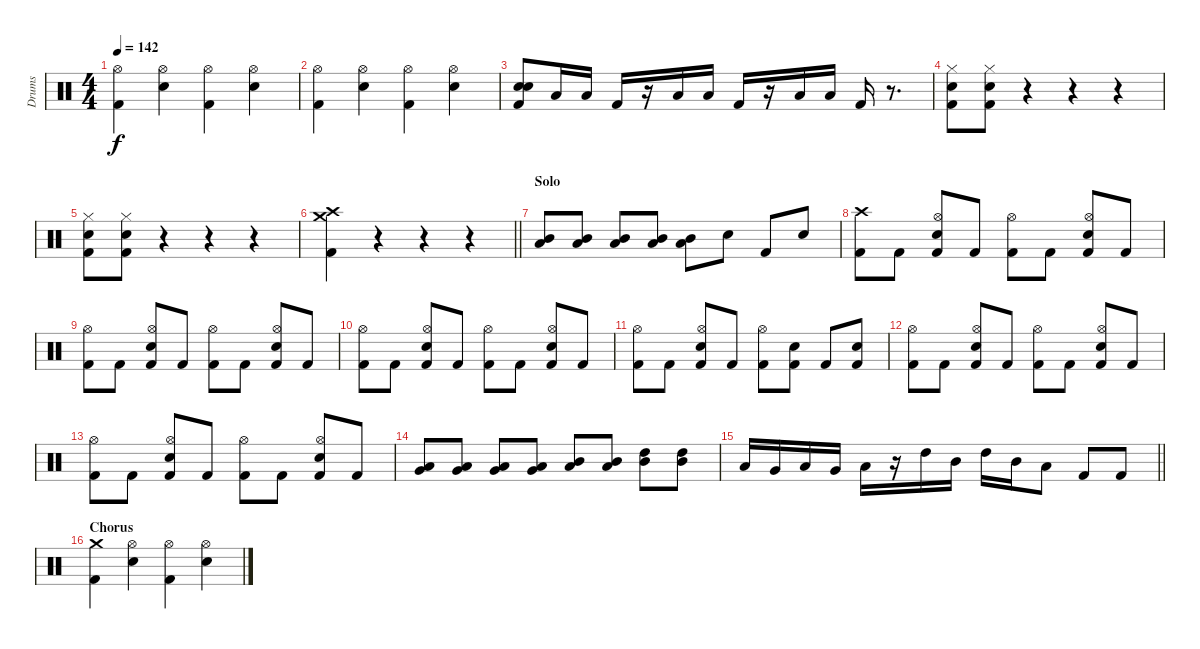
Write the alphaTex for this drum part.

\track ("Drums" "Drums") {instrument percussion}
\staff {score}
\articulation defaults
\ts (4 4)
\tempo 142
\clef neutral
\ks c
("Kick (hit) 2" "Hi-Hat (open)").4{dy f} ("Snare (hit) 2" "Hi-Hat (open)").4 ("Kick (hit) 2" "Hi-Hat (open)").4 ("Snare (hit) 2" "Hi-Hat (open)").4 |
("Kick (hit) 2" "Hi-Hat (open)").4 ("Snare (hit) 2" "Hi-Hat (open)").4 ("Kick (hit) 2" "Hi-Hat (open)").4 ("Snare (hit) 2" "Hi-Hat (open)").4 |
("Snare (hit) 2" "Electric Snare (hit)" "Kick (hit) 2").8 "Low Tom (hit)".16 "Low Floor Tom (hit)".16 "Kick (hit) 2".16 r.16 "Low Tom (hit)".16 "Low Floor Tom (hit)".16 "Kick (hit) 2".16 r.16 "Low Tom (hit)".16 "Low Floor Tom (hit)".16 "Kick (hit) 2".16 r.8{d} |
("Snare (hit) 2" "Kick (hit) 2" "Hi-Hat (closed)").8 ("Snare (hit) 2" "Kick (hit) 2" "Hi-Hat (closed)").8 r.4 r.4 r.4 |
("Snare (hit) 2" "Kick (hit) 2" "Hi-Hat (closed)").8 ("Snare (hit) 2" "Kick (hit) 2" "Hi-Hat (closed)").8 r.4 r.4 r.4 |
\barLineRight lightlight
("Kick (hit) 2" "Crash high (hit)" "Crash medium (hit)").4 r.4 r.4 r.4 |
\section ("" "Solo")
("Mid Tom (hit)" "Low Tom (hit)").8 ("Mid Tom (hit)" "Low Tom (hit)").8 ("Mid Tom (hit)" "Low Tom (hit)").8 ("Mid Tom (hit)" "Low Tom (hit)").8 ("Mid Tom (hit)" "Low Tom (hit)").8 "Snare (hit) 2".8 "Kick (hit) 2".8 "Snare (hit) 2".8 |
("Kick (hit) 2" "Crash high (hit)").8 "Kick (hit) 2".8 ("Kick (hit) 2" "Snare (hit) 2" "Hi-Hat (open)").8 "Kick (hit) 2".8 ("Kick (hit) 2" "Hi-Hat (open)").8 "Kick (hit) 2".8 ("Kick (hit) 2" "Snare (hit) 2" "Hi-Hat (open)").8 "Kick (hit) 2".8 |
("Kick (hit) 2" "Hi-Hat (open)").8 "Kick (hit) 2".8 ("Kick (hit) 2" "Snare (hit) 2" "Hi-Hat (open)").8 "Kick (hit) 2".8 ("Kick (hit) 2" "Hi-Hat (open)").8 "Kick (hit) 2".8 ("Kick (hit) 2" "Snare (hit) 2" "Hi-Hat (open)").8 "Kick (hit) 2".8 |
("Kick (hit) 2" "Hi-Hat (open)").8 "Kick (hit) 2".8 ("Kick (hit) 2" "Snare (hit) 2" "Hi-Hat (open)").8 "Kick (hit) 2".8 ("Kick (hit) 2" "Hi-Hat (open)").8 "Kick (hit) 2".8 ("Kick (hit) 2" "Snare (hit) 2" "Hi-Hat (open)").8 "Kick (hit) 2".8 |
("Kick (hit) 2" "Hi-Hat (open)").8 "Kick (hit) 2".8 ("Kick (hit) 2" "Snare (hit) 2" "Hi-Hat (open)").8 "Kick (hit) 2".8 ("Kick (hit) 2" "Hi-Hat (open)").8 ("Kick (hit) 2" "Snare (hit) 2").8 "Kick (hit) 2".8 ("Kick (hit) 2" "Snare (hit) 2").8 |
("Kick (hit) 2" "Hi-Hat (open)").8 "Kick (hit) 2".8 ("Kick (hit) 2" "Snare (hit) 2" "Hi-Hat (open)").8 "Kick (hit) 2".8 ("Kick (hit) 2" "Hi-Hat (open)").8 "Kick (hit) 2".8 ("Kick (hit) 2" "Snare (hit) 2" "Hi-Hat (open)").8 "Kick (hit) 2".8 |
("Kick (hit) 2" "Hi-Hat (open)").8 "Kick (hit) 2".8 ("Kick (hit) 2" "Snare (hit) 2" "Hi-Hat (open)").8 "Kick (hit) 2".8 ("Kick (hit) 2" "Hi-Hat (open)").8 "Kick (hit) 2".8 ("Kick (hit) 2" "Snare (hit) 2" "Hi-Hat (open)").8 "Kick (hit) 2".8 |
("Very Low Tom (hit)" "Low Floor Tom (hit)").8 ("Very Low Tom (hit)" "Low Floor Tom (hit)").8 ("Low Tom (hit)" "Very Low Tom (hit)").8 ("Low Tom (hit)" "Very Low Tom (hit)").8 ("Mid Tom (hit)" "Low Tom (hit)").8 ("Mid Tom (hit)" "Low Tom (hit)").8 ("High Tom (hit)" "Mid Tom (hit)").8 ("High Tom (hit)" "Mid Tom (hit)").8 |
\barLineRight lightlight "Low Tom (hit)".16 "Very Low Tom (hit)".16 "Low Tom (hit)".16 "Very Low Tom (hit)".16 "Low Floor Tom (hit)".16
r.16 "High Tom (hit)".16 "Mid Tom (hit)".16 "High Tom (hit)".16 "Mid Tom (hit)".16 "Low Tom (hit)".8 "Kick (hit) 2".8 "Kick (hit) 2".8 |
\section ("" "Chorus")
("Kick (hit) 2" "Crash medium (hit)").4 ("Snare (hit) 2" "Hi-Hat (open)").4 ("Kick (hit) 2" "Hi-Hat (open)").4 ("Snare (hit) 2" "Hi-Hat (open)").4
